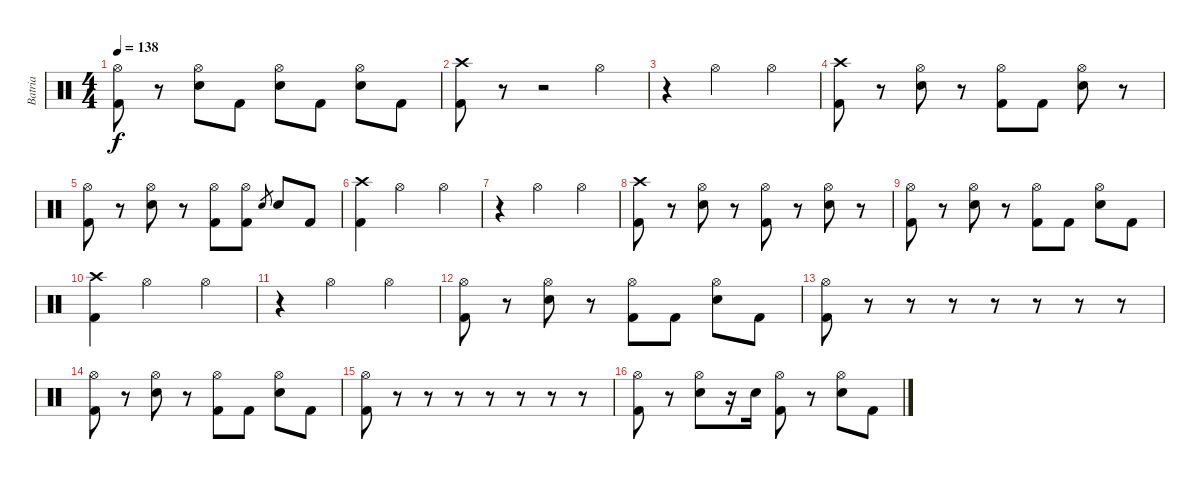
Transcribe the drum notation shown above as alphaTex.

\track ("Batria" "Batria") {instrument percussion}
\staff {score}
\articulation defaults
\ts (4 4)
\tempo 138
\clef neutral
\ks c
("Hi-Hat (open)" "Kick (hit) 2").8{dy f} r.8 ("Hi-Hat (open)" "Electric Snare (hit)").8 "Kick (hit) 2".8 ("Hi-Hat (open)" "Electric Snare (hit)").8 "Kick (hit) 2".8 ("Hi-Hat (open)" "Electric Snare (hit)").8 "Kick (hit) 2".8 |
("Crash high (hit)" "Kick (hit) 2").8 r.8 r.2 "Hi-Hat (open)".4 |
r.4 "Hi-Hat (open)".2 "Hi-Hat (open)".4 |
("Crash high (hit)" "Kick (hit) 2").8 r.8 ("Hi-Hat (open)" "Electric Snare (hit)").8 r.8 ("Hi-Hat (open)" "Kick (hit) 2").8 "Kick (hit) 2".8 ("Hi-Hat (open)" "Electric Snare (hit)").8 r.8 |
("Hi-Hat (open)" "Kick (hit) 2").8 r.8 ("Hi-Hat (open)" "Electric Snare (hit)").8 r.8 ("Hi-Hat (open)" "Kick (hit) 2").8 ("Hi-Hat (open)" "Kick (hit) 2").8 "Electric Snare (hit)".8{gr} "Electric Snare (hit)".8 "Kick (hit) 2".8 |
("Crash high (hit)" "Kick (hit) 2").4 "Hi-Hat (open)".2 "Hi-Hat (open)".4 |
r.4 "Hi-Hat (open)".2 "Hi-Hat (open)".4 |
("Crash high (hit)" "Kick (hit) 2").8 r.8 ("Hi-Hat (open)" "Electric Snare (hit)").8 r.8 ("Hi-Hat (open)" "Kick (hit) 2").8 r.8 ("Hi-Hat (open)" "Electric Snare (hit)").8 r.8 |
("Hi-Hat (open)" "Kick (hit) 2").8 r.8 ("Hi-Hat (open)" "Electric Snare (hit)").8 r.8 ("Hi-Hat (open)" "Kick (hit) 2").8 "Kick (hit) 2".8 ("Hi-Hat (open)" "Electric Snare (hit)").8 "Kick (hit) 2".8 |
("Crash high (hit)" "Kick (hit) 2").4 "Hi-Hat (open)".2 "Hi-Hat (open)".4 |
r.4 "Hi-Hat (open)".2 "Hi-Hat (open)".4 |
("Hi-Hat (open)" "Kick (hit) 2").8 r.8 ("Hi-Hat (open)" "Electric Snare (hit)").8 r.8 ("Hi-Hat (open)" "Kick (hit) 2").8 "Kick (hit) 2".8 ("Hi-Hat (open)" "Electric Snare (hit)").8 "Kick (hit) 2".8 |
("Hi-Hat (open)" "Kick (hit) 2").8 r.8 r.8 r.8 r.8 r.8 r.8 r.8 |
("Hi-Hat (open)" "Kick (hit) 2").8 r.8 ("Hi-Hat (open)" "Electric Snare (hit)").8 r.8 ("Hi-Hat (open)" "Kick (hit) 2").8 "Kick (hit) 2".8 ("Hi-Hat (open)" "Electric Snare (hit)").8 "Kick (hit) 2".8 |
("Hi-Hat (open)" "Kick (hit) 2").8 r.8 r.8 r.8 r.8 r.8 r.8 r.8 |
("Hi-Hat (open)" "Kick (hit) 2").8 r.8 ("Hi-Hat (open)" "Electric Snare (hit)").8 r.16 "Electric Snare (hit)".16 ("Hi-Hat (open)" "Kick (hit) 2").8 r.8 ("Hi-Hat (open)" "Electric Snare (hit)").8 "Kick (hit) 2".8
